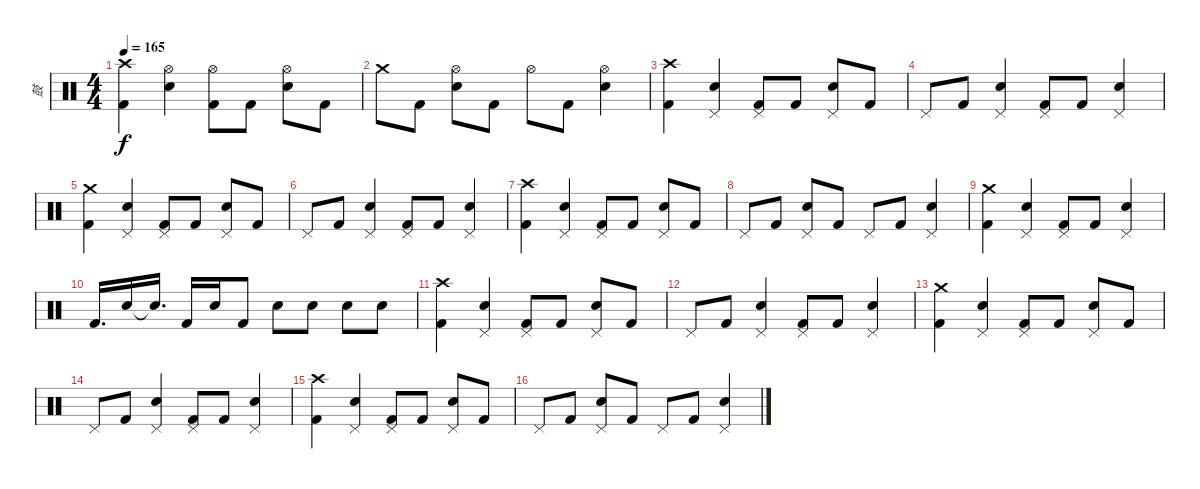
\track ("鼓" "鼓") {instrument percussion}
\staff {score}
\articulation defaults
\ts (4 4)
\tempo 165
\clef neutral
\ks c
("Crash high (hit)" "Kick (hit) 2").4{dy f} ("Hi-Hat (open)" "Snare (hit) 2").4 ("Hi-Hat (open)" "Kick (hit) 2").8 "Kick (hit) 2".8 ("Hi-Hat (open)" "Snare (hit) 2").8 "Kick (hit) 2".8 |
"Crash medium (hit)".8 "Kick (hit) 2".8 ("Hi-Hat (open)" "Snare (hit) 2").8 "Kick (hit) 2".8 "Hi-Hat (open)".8 "Kick (hit) 2".8 ("Hi-Hat (open)" "Snare (hit) 2").4 |
("Crash high (hit)" "Kick (hit) 2").4 ("Pedal Hi-Hat (hit)" "Snare (hit) 2").4 ("Pedal Hi-Hat (hit)" "Kick (hit) 2").8 "Kick (hit) 2".8 ("Pedal Hi-Hat (hit)" "Snare (hit) 2").8 "Kick (hit) 2".8 |
"Pedal Hi-Hat (hit)".8 "Kick (hit) 2".8 ("Pedal Hi-Hat (hit)" "Snare (hit) 2").4 ("Pedal Hi-Hat (hit)" "Kick (hit) 2").8 "Kick (hit) 2".8 ("Pedal Hi-Hat (hit)" "Snare (hit) 2").4 |
("Crash medium (hit)" "Kick (hit) 2").4 ("Pedal Hi-Hat (hit)" "Snare (hit) 2").4 ("Pedal Hi-Hat (hit)" "Kick (hit) 2").8 "Kick (hit) 2".8 ("Pedal Hi-Hat (hit)" "Snare (hit) 2").8 "Kick (hit) 2".8 |
"Pedal Hi-Hat (hit)".8 "Kick (hit) 2".8 ("Pedal Hi-Hat (hit)" "Snare (hit) 2").4 ("Pedal Hi-Hat (hit)" "Kick (hit) 2").8 "Kick (hit) 2".8 ("Pedal Hi-Hat (hit)" "Snare (hit) 2").4 |
("Crash high (hit)" "Kick (hit) 2").4 ("Pedal Hi-Hat (hit)" "Snare (hit) 2").4 ("Pedal Hi-Hat (hit)" "Kick (hit) 2").8 "Kick (hit) 2".8 ("Pedal Hi-Hat (hit)" "Snare (hit) 2").8 "Kick (hit) 2".8 |
"Pedal Hi-Hat (hit)".8 "Kick (hit) 2".8 ("Pedal Hi-Hat (hit)" "Snare (hit) 2").8 "Kick (hit) 2".8 "Pedal Hi-Hat (hit)".8 "Kick (hit) 2".8 ("Pedal Hi-Hat (hit)" "Snare (hit) 2").4 |
("Crash medium (hit)" "Kick (hit) 2").4 ("Pedal Hi-Hat (hit)" "Snare (hit) 2").4 ("Pedal Hi-Hat (hit)" "Kick (hit) 2").8 "Kick (hit) 2".8 ("Pedal Hi-Hat (hit)" "Snare (hit) 2").4 |
"Kick (hit) 2".16{d} "Snare (hit) 2".16 "Snare (hit) 2"{t}.16{d} "Kick (hit) 2".16 "Snare (hit) 2".16 "Kick (hit) 2".8 "Snare (hit) 2".8 "Snare (hit) 2".8 "Snare (hit) 2".8 "Snare (hit) 2".8 |
("Crash high (hit)" "Kick (hit) 2").4 ("Pedal Hi-Hat (hit)" "Snare (hit) 2").4 ("Pedal Hi-Hat (hit)" "Kick (hit) 2").8 "Kick (hit) 2".8 ("Pedal Hi-Hat (hit)" "Snare (hit) 2").8 "Kick (hit) 2".8 |
"Pedal Hi-Hat (hit)".8 "Kick (hit) 2".8 ("Pedal Hi-Hat (hit)" "Snare (hit) 2").4 ("Pedal Hi-Hat (hit)" "Kick (hit) 2").8 "Kick (hit) 2".8 ("Pedal Hi-Hat (hit)" "Snare (hit) 2").4 |
("Crash medium (hit)" "Kick (hit) 2").4 ("Pedal Hi-Hat (hit)" "Snare (hit) 2").4 ("Pedal Hi-Hat (hit)" "Kick (hit) 2").8 "Kick (hit) 2".8 ("Pedal Hi-Hat (hit)" "Snare (hit) 2").8 "Kick (hit) 2".8 |
"Pedal Hi-Hat (hit)".8 "Kick (hit) 2".8 ("Pedal Hi-Hat (hit)" "Snare (hit) 2").4 ("Pedal Hi-Hat (hit)" "Kick (hit) 2").8 "Kick (hit) 2".8 ("Pedal Hi-Hat (hit)" "Snare (hit) 2").4 |
("Crash high (hit)" "Kick (hit) 2").4 ("Pedal Hi-Hat (hit)" "Snare (hit) 2").4 ("Pedal Hi-Hat (hit)" "Kick (hit) 2").8 "Kick (hit) 2".8 ("Pedal Hi-Hat (hit)" "Snare (hit) 2").8 "Kick (hit) 2".8 |
"Pedal Hi-Hat (hit)".8 "Kick (hit) 2".8 ("Pedal Hi-Hat (hit)" "Snare (hit) 2").8 "Kick (hit) 2".8 "Pedal Hi-Hat (hit)".8 "Kick (hit) 2".8 ("Pedal Hi-Hat (hit)" "Snare (hit) 2").4
